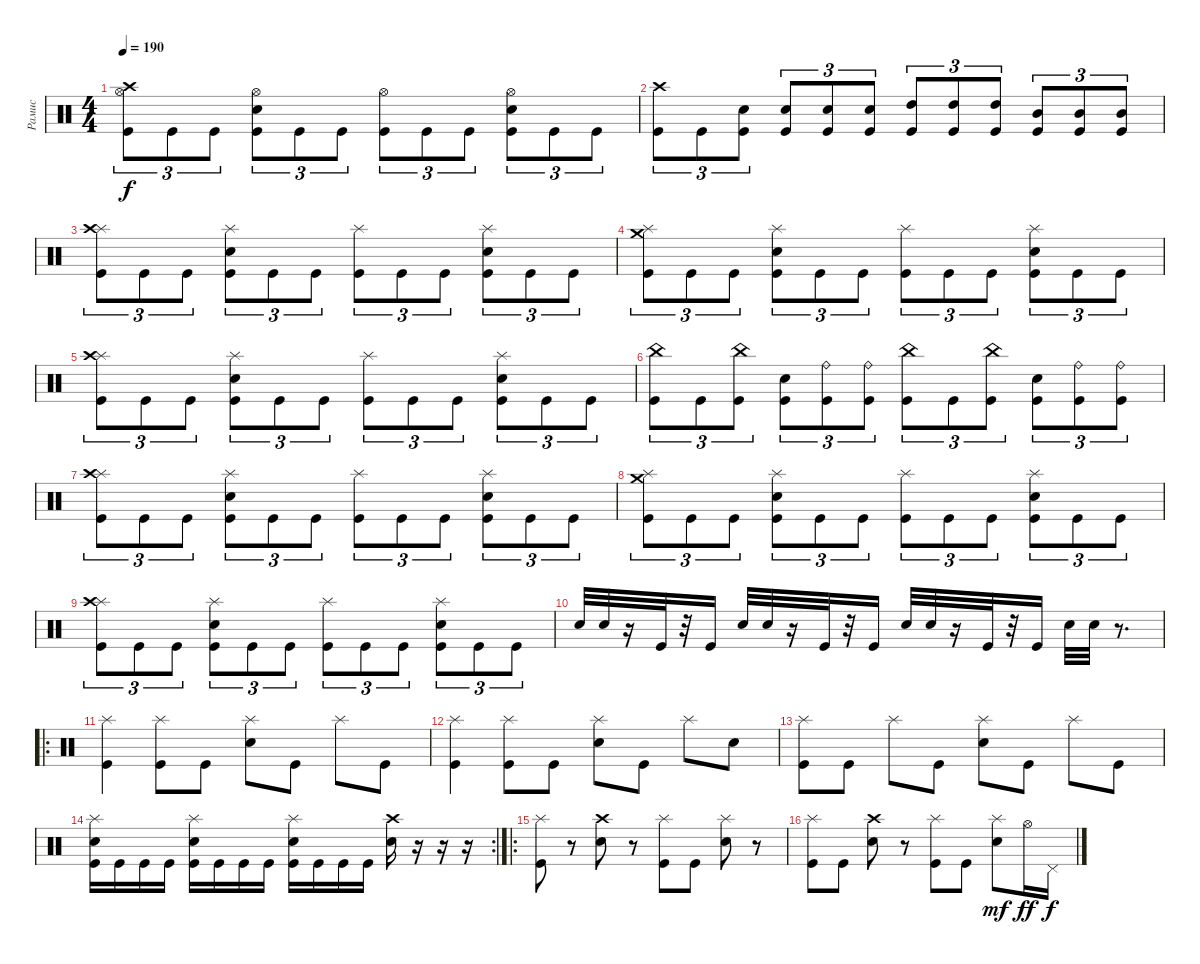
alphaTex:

\track ("Рамис" "Рамис") {instrument percussion}
\staff {score}
\articulation defaults
\ts (4 4)
\tempo 190
\clef neutral
\ks c
("Hi-Hat (open)" "Crash high (hit)" "Kick (hit)").8{tu (3 2) dy f} "Kick (hit)".8{tu (3 2)} "Kick (hit)".8{tu (3 2)} ("Hi-Hat (open)" "Electric Snare (hit)" "Kick (hit)").8{tu (3 2)} "Kick (hit)".8{tu (3 2)} "Kick (hit)".8{tu (3 2)} ("Hi-Hat (open)" "Kick (hit)").8{tu (3 2)} "Kick (hit)".8{tu (3 2)} "Kick (hit)".8{tu (3 2)} ("Hi-Hat (open)" "Electric Snare (hit)" "Kick (hit)").8{tu (3 2)} "Kick (hit)".8{tu (3 2)} "Kick (hit)".8{tu (3 2)} |
("Crash high (hit)" "Kick (hit)").8{tu (3 2)} "Kick (hit)".8{tu (3 2)} ("Electric Snare (hit)" "Kick (hit)").8{tu (3 2)} ("Electric Snare (hit)" "Kick (hit)").8{tu (3 2)} ("Electric Snare (hit)" "Kick (hit)").8{tu (3 2)} ("Electric Snare (hit)" "Kick (hit)").8{tu (3 2)} ("High Tom (hit)" "Kick (hit)").8{tu (3 2)} ("High Tom (hit)" "Kick (hit)").8{tu (3 2)} ("High Tom (hit)" "Kick (hit)").8{tu (3 2)} ("Mid Tom (hit)" "Kick (hit)").8{tu (3 2)} ("Mid Tom (hit)" "Kick (hit)").8{tu (3 2)} ("Mid Tom (hit)" "Kick (hit)").8{tu (3 2)} |
("Splash (hit)" "Crash high (hit)" "Kick (hit)").8{tu (3 2)} "Kick (hit)".8{tu (3 2)} "Kick (hit)".8{tu (3 2)} ("Splash (hit)" "Electric Snare (hit)" "Kick (hit)").8{tu (3 2)} "Kick (hit)".8{tu (3 2)} "Kick (hit)".8{tu (3 2)} ("Splash (hit)" "Kick (hit)").8{tu (3 2)} "Kick (hit)".8{tu (3 2)} "Kick (hit)".8{tu (3 2)} ("Splash (hit)" "Electric Snare (hit)" "Kick (hit)").8{tu (3 2)} "Kick (hit)".8{tu (3 2)} "Kick (hit)".8{tu (3 2)} |
("Splash (hit)" "Crash medium (hit)" "Kick (hit)").8{tu (3 2)} "Kick (hit)".8{tu (3 2)} "Kick (hit)".8{tu (3 2)} ("Splash (hit)" "Electric Snare (hit)" "Kick (hit)").8{tu (3 2)} "Kick (hit)".8{tu (3 2)} "Kick (hit)".8{tu (3 2)} ("Splash (hit)" "Kick (hit)").8{tu (3 2)} "Kick (hit)".8{tu (3 2)} "Kick (hit)".8{tu (3 2)} ("Splash (hit)" "Electric Snare (hit)" "Kick (hit)").8{tu (3 2)} "Kick (hit)".8{tu (3 2)} "Kick (hit)".8{tu (3 2)} |
("Splash (hit)" "Crash high (hit)" "Kick (hit)").8{tu (3 2)} "Kick (hit)".8{tu (3 2)} "Kick (hit)".8{tu (3 2)} ("Splash (hit)" "Electric Snare (hit)" "Kick (hit)").8{tu (3 2)} "Kick (hit)".8{tu (3 2)} "Kick (hit)".8{tu (3 2)} ("Splash (hit)" "Kick (hit)").8{tu (3 2)} "Kick (hit)".8{tu (3 2)} "Kick (hit)".8{tu (3 2)} ("Splash (hit)" "Electric Snare (hit)" "Kick (hit)").8{tu (3 2)} "Kick (hit)".8{tu (3 2)} "Kick (hit)".8{tu (3 2)} |
("China (hit)" "Kick (hit)").8{tu (3 2)} "Kick (hit)".8{tu (3 2)} ("China (hit)" "Kick (hit)").8{tu (3 2)} ("Electric Snare (hit)" "Kick (hit)").8{tu (3 2)} ("Ride (bell)" "Kick (hit)").8{tu (3 2)} ("Ride (bell)" "Kick (hit)").8{tu (3 2)} ("China (hit)" "Kick (hit)").8{tu (3 2)} "Kick (hit)".8{tu (3 2)} ("China (hit)" "Kick (hit)").8{tu (3 2)} ("Electric Snare (hit)" "Kick (hit)").8{tu (3 2)} ("Ride (bell)" "Kick (hit)").8{tu (3 2)} ("Ride (bell)" "Kick (hit)").8{tu (3 2)} |
("Splash (hit)" "Crash high (hit)" "Kick (hit)").8{tu (3 2)} "Kick (hit)".8{tu (3 2)} "Kick (hit)".8{tu (3 2)} ("Splash (hit)" "Electric Snare (hit)" "Kick (hit)").8{tu (3 2)} "Kick (hit)".8{tu (3 2)} "Kick (hit)".8{tu (3 2)} ("Splash (hit)" "Kick (hit)").8{tu (3 2)} "Kick (hit)".8{tu (3 2)} "Kick (hit)".8{tu (3 2)} ("Splash (hit)" "Electric Snare (hit)" "Kick (hit)").8{tu (3 2)} "Kick (hit)".8{tu (3 2)} "Kick (hit)".8{tu (3 2)} |
("Splash (hit)" "Crash medium (hit)" "Kick (hit)").8{tu (3 2)} "Kick (hit)".8{tu (3 2)} "Kick (hit)".8{tu (3 2)} ("Splash (hit)" "Electric Snare (hit)" "Kick (hit)").8{tu (3 2)} "Kick (hit)".8{tu (3 2)} "Kick (hit)".8{tu (3 2)} ("Splash (hit)" "Kick (hit)").8{tu (3 2)} "Kick (hit)".8{tu (3 2)} "Kick (hit)".8{tu (3 2)} ("Splash (hit)" "Electric Snare (hit)" "Kick (hit)").8{tu (3 2)} "Kick (hit)".8{tu (3 2)} "Kick (hit)".8{tu (3 2)} |
("Splash (hit)" "Crash high (hit)" "Kick (hit)").8{tu (3 2)} "Kick (hit)".8{tu (3 2)} "Kick (hit)".8{tu (3 2)} ("Splash (hit)" "Electric Snare (hit)" "Kick (hit)").8{tu (3 2)} "Kick (hit)".8{tu (3 2)} "Kick (hit)".8{tu (3 2)} ("Splash (hit)" "Kick (hit)").8{tu (3 2)} "Kick (hit)".8{tu (3 2)} "Kick (hit)".8{tu (3 2)} ("Splash (hit)" "Electric Snare (hit)" "Kick (hit)").8{tu (3 2)} "Kick (hit)".8{tu (3 2)} "Kick (hit)".8{tu (3 2)} |
"Electric Snare (hit)".32 "Electric Snare (hit)".32 r.16 "Kick (hit)".32 r.32 "Kick (hit)".16 "Electric Snare (hit)".32 "Electric Snare (hit)".32 r.16 "Kick (hit)".32 r.32 "Kick (hit)".16 "Electric Snare (hit)".32 "Electric Snare (hit)".32 r.16 "Kick (hit)".32 r.32 "Kick (hit)".16 "Electric Snare (hit)".32 "Electric Snare (hit)".32 r.8{d} |
\ro
("Splash (hit)" "Kick (hit)").4 ("Splash (hit)" "Kick (hit)").8 "Kick (hit)".8 ("Splash (hit)" "Electric Snare (hit)").8 "Kick (hit)".8 "Splash (hit)".8 "Kick (hit)".8 |
("Splash (hit)" "Kick (hit)").4 ("Splash (hit)" "Kick (hit)").8 "Kick (hit)".8 ("Splash (hit)" "Electric Snare (hit)").8 "Kick (hit)".8 "Splash (hit)".8 "Electric Snare (hit)".8 |
("Splash (hit)" "Kick (hit)").8 "Kick (hit)".8 "Splash (hit)".8 "Kick (hit)".8 ("Splash (hit)" "Electric Snare (hit)").8 "Kick (hit)".8 "Splash (hit)".8 "Kick (hit)".8 |
\rc 2
("Splash (hit)" "Electric Snare (hit)" "Kick (hit)").16 "Kick (hit)".16 "Kick (hit)".16 "Kick (hit)".16 ("Splash (hit)" "Electric Snare (hit)" "Kick (hit)").16 "Kick (hit)".16 "Kick (hit)".16 "Kick (hit)".16 ("Splash (hit)" "Electric Snare (hit)" "Kick (hit)").16 "Kick (hit)".16 "Kick (hit)".16 "Kick (hit)".16 ("Crash high (hit)" "Electric Snare (hit)").16 r.16 r.16 r.16 |
\ro
("Splash (hit)" "Kick (hit)").8 r.8 ("Crash high (hit)" "Electric Snare (hit)").8 r.8 ("Splash (hit)" "Kick (hit)").8 "Kick (hit)".8 ("Splash (hit)" "Electric Snare (hit)").8 r.8 |
("Splash (hit)" "Kick (hit)").8 "Kick (hit)".8 ("Crash high (hit)" "Electric Snare (hit)").8 r.8 ("Splash (hit)" "Kick (hit)").8 "Kick (hit)".8 ("Splash (hit)" "Electric Snare (hit)").8{dy mf} "Hi-Hat (open)".16{dy ff} "Pedal Hi-Hat (hit)".16{dy f}
